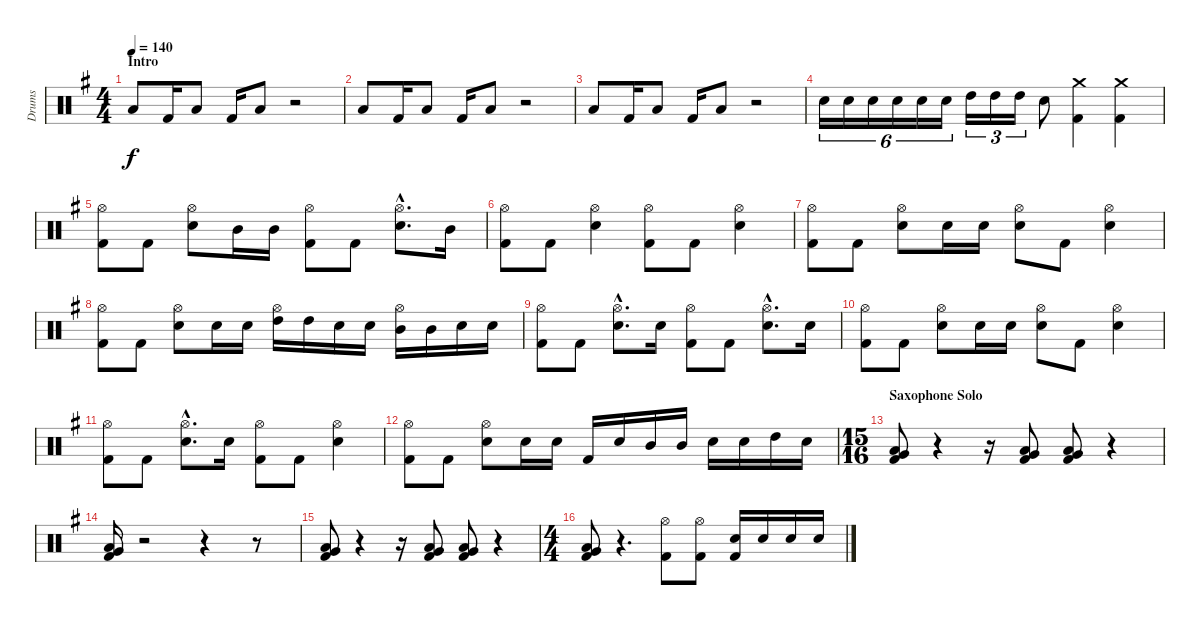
\track ("Drums" "Drums") {instrument percussion}
\staff {score}
\articulation defaults
\ts (4 4)
\section ("" "Intro")
\tempo 140
\clef neutral
\ks g "Low Tom (hit)".8{dy f} "Kick (hit) 2".16 "Low Tom (hit)".8 "Kick (hit) 2".16 "Low Tom (hit)".8
r.2 |
"Low Tom (hit)".8 "Kick (hit) 2".16 "Low Tom (hit)".8 "Kick (hit) 2".16 "Low Tom (hit)".8 r.2 |
"Low Tom (hit)".8 "Kick (hit) 2".16 "Low Tom (hit)".8 "Kick (hit) 2".16 "Low Tom (hit)".8 r.2 |
"Electric Snare (hit)".16{tu (6 4)} "Electric Snare (hit)".16{tu (6 4)} "Electric Snare (hit)".16{tu (6 4)} "Electric Snare (hit)".16{tu (6 4)} "Electric Snare (hit)".16{tu (6 4)} "Electric Snare (hit)".16{tu (6 4)} "High Tom (hit)".16{tu (3 2)} "High Tom (hit)".16{tu (3 2)} "High Tom (hit)".16{tu (3 2)} "Electric Snare (hit)".8 ("Crash medium (hit)" "Kick (hit) 2").4 ("Crash medium (hit)" "Kick (hit) 2").4 |
("Hi-Hat (open)" "Kick (hit) 2").8 "Kick (hit) 2".8 ("Hi-Hat (open)" "Electric Snare (hit)").8 "Mid Tom (hit)".16 "Mid Tom (hit)".16 ("Hi-Hat (open)" "Kick (hit) 2").8 "Kick (hit) 2".8 ("Hi-Hat (open)"{hac} "Electric Snare (hit)"{hac}).8{d} "Mid Tom (hit)".16 |
("Hi-Hat (open)" "Kick (hit) 2").8 "Kick (hit) 2".8 ("Hi-Hat (open)" "Electric Snare (hit)").4 ("Hi-Hat (open)" "Kick (hit) 2").8 "Kick (hit) 2".8 ("Hi-Hat (open)" "Electric Snare (hit)").4 |
("Hi-Hat (open)" "Kick (hit) 2").8 "Kick (hit) 2".8 ("Hi-Hat (open)" "Electric Snare (hit)").8 "Electric Snare (hit)".16 "Electric Snare (hit)".16 ("Hi-Hat (open)" "Electric Snare (hit)").8 "Kick (hit) 2".8 ("Hi-Hat (open)" "Electric Snare (hit)").4 |
("Hi-Hat (open)" "Kick (hit) 2").8 "Kick (hit) 2".8 ("Hi-Hat (open)" "Electric Snare (hit)").8 "Electric Snare (hit)".16 "Electric Snare (hit)".16 ("Hi-Hat (open)" "High Tom (hit)").16 "High Tom (hit)".16 "Electric Snare (hit)".16 "Electric Snare (hit)".16 ("Hi-Hat (open)" "Mid Tom (hit)").16 "Mid Tom (hit)".16 "Electric Snare (hit)".16 "Electric Snare (hit)".16 |
("Hi-Hat (open)" "Kick (hit) 2").8 "Kick (hit) 2".8 ("Hi-Hat (open)"{hac} "Electric Snare (hit)"{hac}).8{d} "Electric Snare (hit)".16 ("Hi-Hat (open)" "Kick (hit) 2").8 "Kick (hit) 2".8 ("Hi-Hat (open)"{hac} "Electric Snare (hit)"{hac}).8{d} "Electric Snare (hit)".16 |
("Hi-Hat (open)" "Kick (hit) 2").8 "Kick (hit) 2".8 ("Hi-Hat (open)" "Electric Snare (hit)").8 "Electric Snare (hit)".16 "Electric Snare (hit)".16 ("Hi-Hat (open)" "Electric Snare (hit)").8 "Kick (hit) 2".8 ("Hi-Hat (open)" "Electric Snare (hit)").4 |
("Hi-Hat (open)" "Kick (hit) 2").8 "Kick (hit) 2".8 ("Hi-Hat (open)"{hac} "Electric Snare (hit)"{hac}).8{d} "Electric Snare (hit)".16 ("Hi-Hat (open)" "Kick (hit) 2").8 "Kick (hit) 2".8 ("Hi-Hat (open)" "Electric Snare (hit)").4 |
("Hi-Hat (open)" "Kick (hit) 2").8 "Kick (hit) 2".8 ("Hi-Hat (open)" "Electric Snare (hit)").8 "Electric Snare (hit)".16 "Electric Snare (hit)".16 "Kick (hit) 2".16 "Electric Snare (hit)".16 "Mid Tom (hit)".16 "Mid Tom (hit)".16 "Electric Snare (hit)".16 "Electric Snare (hit)".16 "High Tom (hit)".16 "Electric Snare (hit)".16 |
\ts (15 16)
\section ("" "Saxophone Solo")
("Low Tom (hit)" "Very Low Tom (hit)" "Kick (hit) 2").8 r.4 r.16 ("Low Tom (hit)" "Very Low Tom (hit)" "Kick (hit) 2").8 ("Low Tom (hit)" "Very Low Tom (hit)" "Kick (hit) 2").8 r.4 |
("Low Tom (hit)" "Very Low Tom (hit)" "Kick (hit) 2").16 r.2 r.4 r.8 |
("Low Tom (hit)" "Very Low Tom (hit)" "Kick (hit) 2").8 r.4 r.16 ("Low Tom (hit)" "Very Low Tom (hit)" "Kick (hit) 2").8 ("Low Tom (hit)" "Very Low Tom (hit)" "Kick (hit) 2").8 r.4 |
\ts (4 4)
("Low Tom (hit)" "Very Low Tom (hit)" "Kick (hit) 2").8 r.4{d} ("Hi-Hat (open)" "Kick (hit) 2").8 ("Hi-Hat (open)" "Kick (hit) 2").8 ("Electric Snare (hit)" "Kick (hit) 2").16 "Electric Snare (hit)".16 "Electric Snare (hit)".16 "Electric Snare (hit)".16
